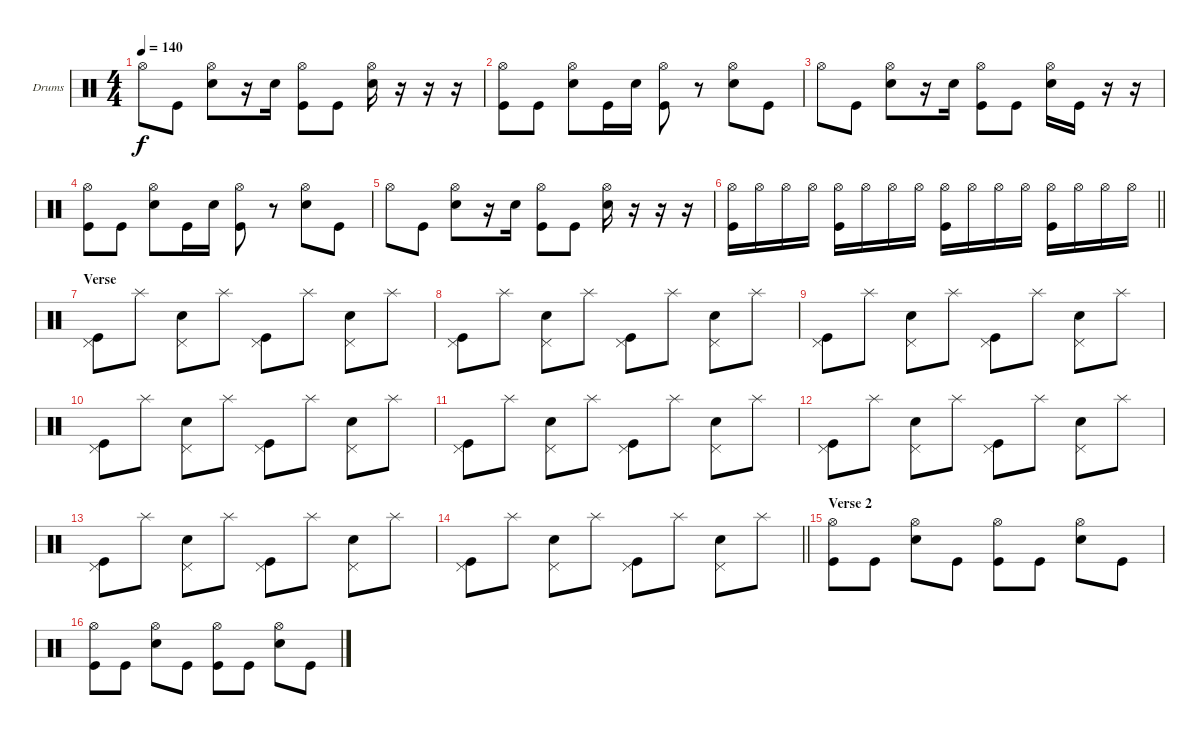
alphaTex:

\bracketExtendMode groupsimilarinstruments
\firstSystemTrackNameOrientation horizontal
\otherSystemsTrackNameOrientation horizontal
\track ("Dave McClain" "Drums") {instrument percussion}
\staff {score}
\articulation defaults
\ts (4 4)
\tempo 140
\clef neutral
\ks c "Hi-Hat (open)".8{dy f} "Kick (hit)".8
("Hi-Hat (open)" "Snare (hit) 2").8 r.16 "Snare (hit) 2".16 ("Hi-Hat (open)" "Kick (hit)").8 "Kick (hit)".8 ("Hi-Hat (open)" "Snare (hit) 2").16 r.16 r.16 r.16 |
("Hi-Hat (open)" "Kick (hit)").8 "Kick (hit)".8 ("Hi-Hat (open)" "Snare (hit) 2").8 "Kick (hit)".16 "Snare (hit) 2".16 ("Hi-Hat (open)" "Kick (hit)").8 r.8 ("Hi-Hat (open)" "Snare (hit) 2").8 "Kick (hit)".8 |
"Hi-Hat (open)".8 "Kick (hit)".8 ("Hi-Hat (open)" "Snare (hit) 2").8 r.16 "Snare (hit) 2".16 ("Hi-Hat (open)" "Kick (hit)").8 "Kick (hit)".8 ("Hi-Hat (open)" "Snare (hit) 2").16 "Kick (hit)".16 r.16 r.16 |
("Hi-Hat (open)" "Kick (hit)").8 "Kick (hit)".8 ("Hi-Hat (open)" "Snare (hit) 2").8 "Kick (hit)".16 "Snare (hit) 2".16 ("Hi-Hat (open)" "Kick (hit)").8 r.8 ("Hi-Hat (open)" "Snare (hit) 2").8 "Kick (hit)".8 |
"Hi-Hat (open)".8 "Kick (hit)".8 ("Hi-Hat (open)" "Snare (hit) 2").8 r.16 "Snare (hit) 2".16 ("Hi-Hat (open)" "Kick (hit)").8 "Kick (hit)".8 ("Hi-Hat (open)" "Snare (hit) 2").16 r.16 r.16 r.16 |
\barLineRight lightlight
("Hi-Hat (open)" "Kick (hit)").16 "Hi-Hat (open)".16 "Hi-Hat (open)".16 "Hi-Hat (open)".16 ("Hi-Hat (open)" "Kick (hit)").16 "Hi-Hat (open)".16 "Hi-Hat (open)".16 "Hi-Hat (open)".16 ("Hi-Hat (open)" "Kick (hit)").16 "Hi-Hat (open)".16 "Hi-Hat (open)".16 "Hi-Hat (open)".16 ("Hi-Hat (open)" "Kick (hit)").16 "Hi-Hat (open)".16 "Hi-Hat (open)".16 "Hi-Hat (open)".16 |
\section ("" "Verse")
("Pedal Hi-Hat (hit)" "Kick (hit)").8 "Splash (hit)".8 ("Pedal Hi-Hat (hit)" "Snare (hit) 2").8 "Splash (hit)".8 ("Pedal Hi-Hat (hit)" "Kick (hit)").8 "Splash (hit)".8 ("Pedal Hi-Hat (hit)" "Snare (hit) 2").8 "Splash (hit)".8 |
("Pedal Hi-Hat (hit)" "Kick (hit)").8 "Splash (hit)".8 ("Pedal Hi-Hat (hit)" "Snare (hit) 2").8 "Splash (hit)".8 ("Pedal Hi-Hat (hit)" "Kick (hit)").8 "Splash (hit)".8 ("Pedal Hi-Hat (hit)" "Snare (hit) 2").8 "Splash (hit)".8 |
("Pedal Hi-Hat (hit)" "Kick (hit)").8 "Splash (hit)".8 ("Pedal Hi-Hat (hit)" "Snare (hit) 2").8 "Splash (hit)".8 ("Pedal Hi-Hat (hit)" "Kick (hit)").8 "Splash (hit)".8 ("Pedal Hi-Hat (hit)" "Snare (hit) 2").8 "Splash (hit)".8 |
("Pedal Hi-Hat (hit)" "Kick (hit)").8 "Splash (hit)".8 ("Pedal Hi-Hat (hit)" "Snare (hit) 2").8 "Splash (hit)".8 ("Pedal Hi-Hat (hit)" "Kick (hit)").8 "Splash (hit)".8 ("Pedal Hi-Hat (hit)" "Snare (hit) 2").8 "Splash (hit)".8 |
("Pedal Hi-Hat (hit)" "Kick (hit)").8 "Splash (hit)".8 ("Pedal Hi-Hat (hit)" "Snare (hit) 2").8 "Splash (hit)".8 ("Pedal Hi-Hat (hit)" "Kick (hit)").8 "Splash (hit)".8 ("Pedal Hi-Hat (hit)" "Snare (hit) 2").8 "Splash (hit)".8 |
("Pedal Hi-Hat (hit)" "Kick (hit)").8 "Splash (hit)".8 ("Pedal Hi-Hat (hit)" "Snare (hit) 2").8 "Splash (hit)".8 ("Pedal Hi-Hat (hit)" "Kick (hit)").8 "Splash (hit)".8 ("Pedal Hi-Hat (hit)" "Snare (hit) 2").8 "Splash (hit)".8 |
("Pedal Hi-Hat (hit)" "Kick (hit)").8 "Splash (hit)".8 ("Pedal Hi-Hat (hit)" "Snare (hit) 2").8 "Splash (hit)".8 ("Pedal Hi-Hat (hit)" "Kick (hit)").8 "Splash (hit)".8 ("Pedal Hi-Hat (hit)" "Snare (hit) 2").8 "Splash (hit)".8 |
\barLineRight lightlight
("Pedal Hi-Hat (hit)" "Kick (hit)").8 "Splash (hit)".8 ("Pedal Hi-Hat (hit)" "Snare (hit) 2").8 "Splash (hit)".8 ("Pedal Hi-Hat (hit)" "Kick (hit)").8 "Splash (hit)".8 ("Pedal Hi-Hat (hit)" "Snare (hit) 2").8 "Splash (hit)".8 |
\section ("" "Verse 2")
("Hi-Hat (open)" "Kick (hit)").8 "Kick (hit)".8 ("Hi-Hat (open)" "Snare (hit) 2").8 "Kick (hit)".8 ("Hi-Hat (open)" "Kick (hit)").8 "Kick (hit)".8 ("Hi-Hat (open)" "Snare (hit) 2").8 "Kick (hit)".8 |
("Hi-Hat (open)" "Kick (hit)").8 "Kick (hit)".8 ("Hi-Hat (open)" "Snare (hit) 2").8 "Kick (hit)".8 ("Hi-Hat (open)" "Kick (hit)").8 "Kick (hit)".8 ("Hi-Hat (open)" "Snare (hit) 2").8 "Kick (hit)".8
